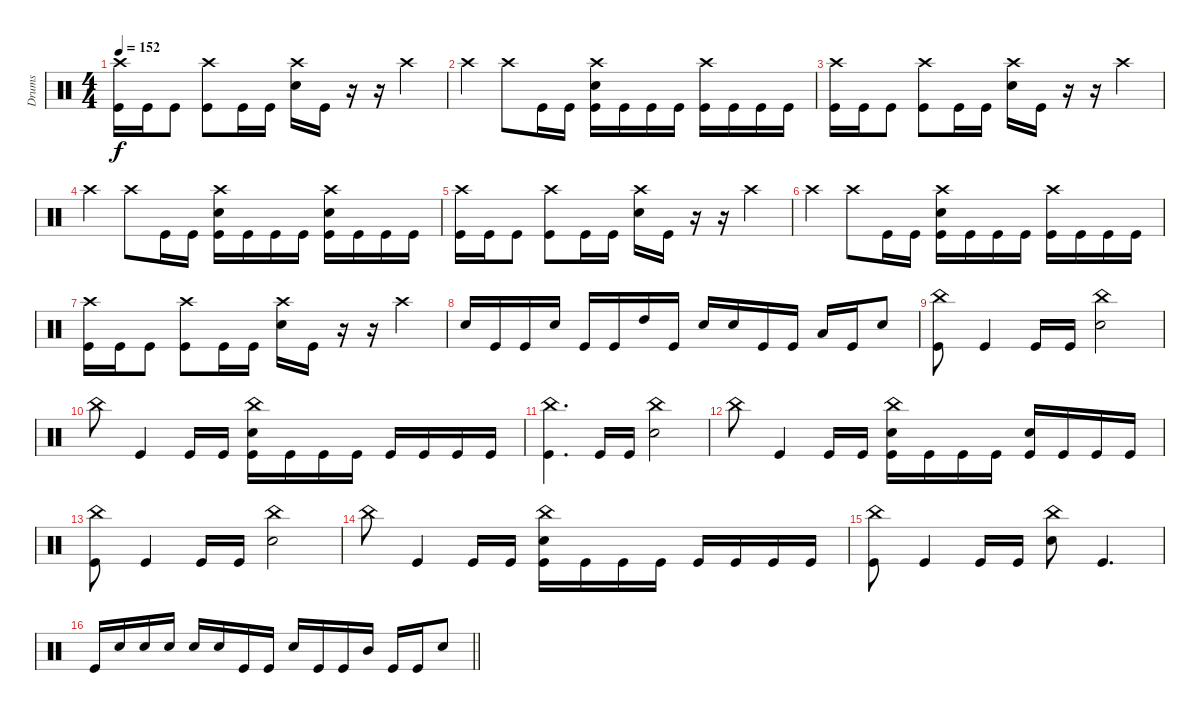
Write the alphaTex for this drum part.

\track ("Drums" "Drums") {instrument percussion}
\staff {score}
\articulation defaults
\ts (4 4)
\tempo 152
\clef neutral
\ks c
("Crash high (hit)" "Kick (hit)").16{dy f} "Kick (hit)".16 "Kick (hit)".8 ("Crash high (hit)" "Kick (hit)").8 "Kick (hit)".16 "Kick (hit)".16 ("Snare (hit) 2" "Crash high (hit)").16 "Kick (hit)".16 r.16 r.16 "Crash high (hit)".4 |
"Crash high (hit)".4 "Crash high (hit)".8 "Kick (hit)".16 "Kick (hit)".16 ("Crash high (hit)" "Snare (hit) 2" "Kick (hit)").16 "Kick (hit)".16 "Kick (hit)".16 "Kick (hit)".16 ("Crash high (hit)" "Kick (hit)").16 "Kick (hit)".16 "Kick (hit)".16 "Kick (hit)".16 |
("Crash high (hit)" "Kick (hit)").16 "Kick (hit)".16 "Kick (hit)".8 ("Crash high (hit)" "Kick (hit)").8 "Kick (hit)".16 "Kick (hit)".16 ("Snare (hit) 2" "Crash high (hit)").16 "Kick (hit)".16 r.16 r.16 "Crash high (hit)".4 |
"Crash high (hit)".4 "Crash high (hit)".8 "Kick (hit)".16 "Kick (hit)".16 ("Crash high (hit)" "Snare (hit) 2" "Kick (hit)").16 "Kick (hit)".16 "Kick (hit)".16 "Kick (hit)".16 ("Snare (hit) 2" "Crash high (hit)" "Kick (hit)").16 "Kick (hit)".16 "Kick (hit)".16 "Kick (hit)".16 |
("Crash high (hit)" "Kick (hit)").16 "Kick (hit)".16 "Kick (hit)".8 ("Crash high (hit)" "Kick (hit)").8 "Kick (hit)".16 "Kick (hit)".16 ("Snare (hit) 2" "Crash high (hit)").16 "Kick (hit)".16 r.16 r.16 "Crash high (hit)".4 |
"Crash high (hit)".4 "Crash high (hit)".8 "Kick (hit)".16 "Kick (hit)".16 ("Crash high (hit)" "Snare (hit) 2" "Kick (hit)").16 "Kick (hit)".16 "Kick (hit)".16 "Kick (hit)".16 ("Crash high (hit)" "Kick (hit)").16 "Kick (hit)".16 "Kick (hit)".16 "Kick (hit)".16 |
("Crash high (hit)" "Kick (hit)").16 "Kick (hit)".16 "Kick (hit)".8 ("Crash high (hit)" "Kick (hit)").8 "Kick (hit)".16 "Kick (hit)".16 ("Snare (hit) 2" "Crash high (hit)").16 "Kick (hit)".16 r.16 r.16 "Crash high (hit)".4 |
"Snare (hit) 2".16 "Kick (hit)".16 "Kick (hit)".16 "Snare (hit) 2".16 "Kick (hit)".16 "Kick (hit)".16 "High Tom (hit)".16 "Kick (hit)".16 "Snare (hit) 2".16 "Snare (hit) 2".16 "Kick (hit)".16 "Kick (hit)".16 "Low Tom (hit)".16 "Kick (hit)".16 "Snare (hit) 2".8 |
("China (hit)" "Kick (hit)").8 "Kick (hit)".4 "Kick (hit)".16 "Kick (hit)".16 ("Snare (hit) 2" "China (hit)").2 |
"China (hit)".8 "Kick (hit)".4 "Kick (hit)".16 "Kick (hit)".16 ("Snare (hit) 2" "China (hit)" "Kick (hit)").16 "Kick (hit)".16 "Kick (hit)".16 "Kick (hit)".16 "Kick (hit)".16 "Kick (hit)".16 "Kick (hit)".16 "Kick (hit)".16 |
("China (hit)" "Kick (hit)").4{d} "Kick (hit)".16 "Kick (hit)".16 ("Snare (hit) 2" "China (hit)").2 |
"China (hit)".8 "Kick (hit)".4 "Kick (hit)".16 "Kick (hit)".16 ("Snare (hit) 2" "China (hit)" "Kick (hit)").16 "Kick (hit)".16 "Kick (hit)".16 "Kick (hit)".16 ("Snare (hit) 2" "Kick (hit)").16 "Kick (hit)".16 "Kick (hit)".16 "Kick (hit)".16 |
("China (hit)" "Kick (hit)").8 "Kick (hit)".4 "Kick (hit)".16 "Kick (hit)".16 ("Snare (hit) 2" "China (hit)").2 |
"China (hit)".8 "Kick (hit)".4 "Kick (hit)".16 "Kick (hit)".16 ("Snare (hit) 2" "China (hit)" "Kick (hit)").16 "Kick (hit)".16 "Kick (hit)".16 "Kick (hit)".16 "Kick (hit)".16 "Kick (hit)".16 "Kick (hit)".16 "Kick (hit)".16 |
("China (hit)" "Kick (hit)").8 "Kick (hit)".4 "Kick (hit)".16 "Kick (hit)".16 ("Snare (hit) 2" "China (hit)").8 "Kick (hit)".4{d} |
\barLineRight lightlight "Kick (hit)".16 "Snare (hit) 2".16 "Snare (hit) 2".16 "Snare (hit) 2".16 "Snare (hit) 2".16 "Snare (hit) 2".16 "Kick (hit)".16 "Kick (hit)".16 "Snare (hit) 2".16 "Kick (hit)".16 "Kick (hit)".16 "Mid Tom (hit)".16 "Kick (hit)".16 "Kick (hit)".16 "Snare (hit) 2".8
